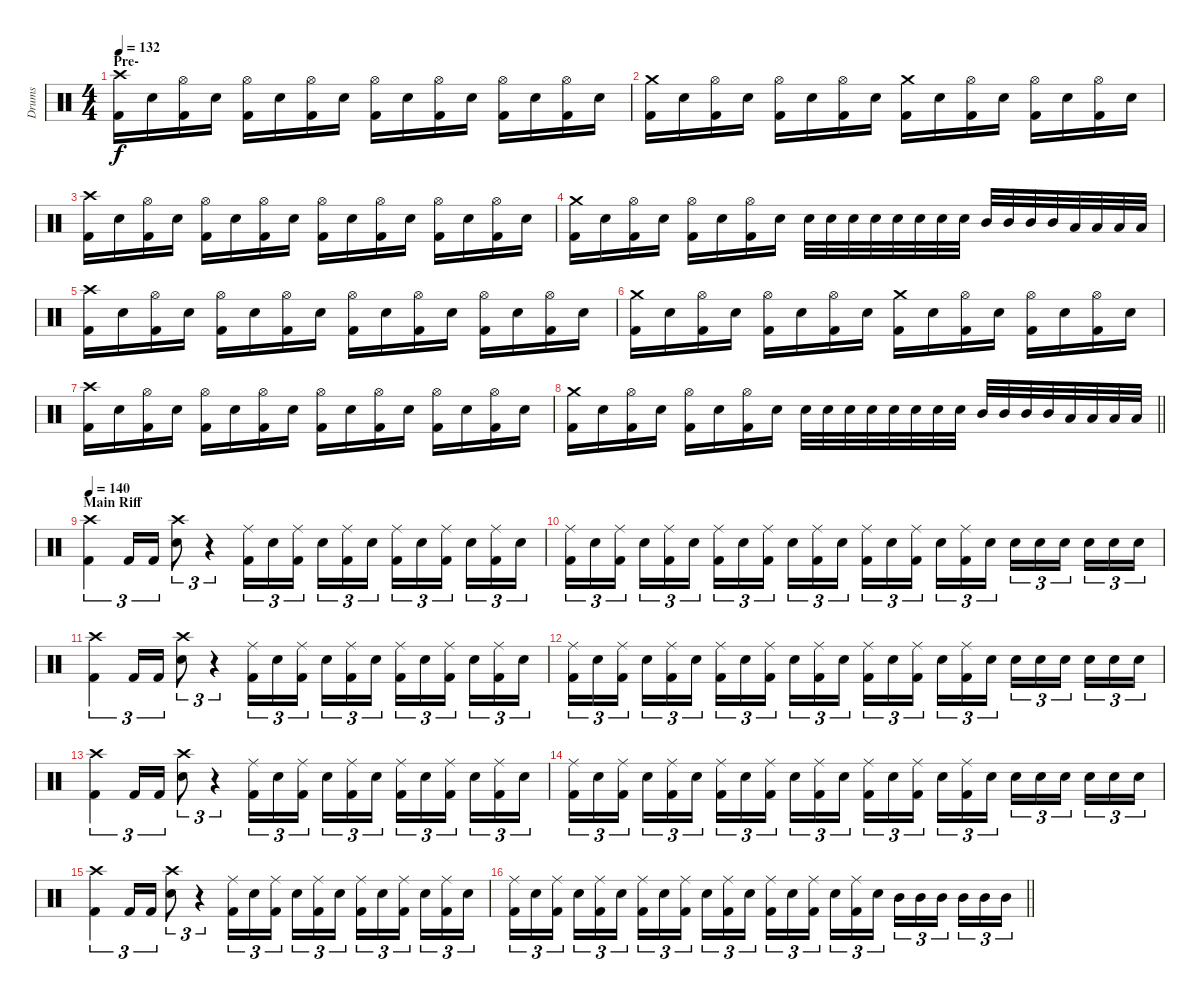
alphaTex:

\track ("Drums" "Drums") {instrument percussion}
\staff {score}
\articulation defaults
\ts (4 4)
\section ("" "Pre-")
\tempo 132
\clef neutral
\ks c
("Crash high (hit)" "Kick (hit) 2").16{dy f} "Electric Snare (hit)".16 ("Hi-Hat (open)" "Kick (hit) 2").16 "Electric Snare (hit)".16 ("Hi-Hat (open)" "Kick (hit) 2").16 "Electric Snare (hit)".16 ("Hi-Hat (open)" "Kick (hit) 2").16 "Electric Snare (hit)".16 ("Hi-Hat (open)" "Kick (hit) 2").16 "Electric Snare (hit)".16 ("Hi-Hat (open)" "Kick (hit) 2").16 "Electric Snare (hit)".16 ("Hi-Hat (open)" "Kick (hit) 2").16 "Electric Snare (hit)".16 ("Hi-Hat (open)" "Kick (hit) 2").16 "Electric Snare (hit)".16 |
("Crash medium (hit)" "Kick (hit) 2").16 "Electric Snare (hit)".16 ("Hi-Hat (open)" "Kick (hit) 2").16 "Electric Snare (hit)".16 ("Hi-Hat (open)" "Kick (hit) 2").16 "Electric Snare (hit)".16 ("Hi-Hat (open)" "Kick (hit) 2").16 "Electric Snare (hit)".16 ("Crash medium (hit)" "Kick (hit) 2").16 "Electric Snare (hit)".16 ("Hi-Hat (open)" "Kick (hit) 2").16 "Electric Snare (hit)".16 ("Hi-Hat (open)" "Kick (hit) 2").16 "Electric Snare (hit)".16 ("Hi-Hat (open)" "Kick (hit) 2").16 "Electric Snare (hit)".16 |
("Crash high (hit)" "Kick (hit) 2").16 "Electric Snare (hit)".16 ("Hi-Hat (open)" "Kick (hit) 2").16 "Electric Snare (hit)".16 ("Hi-Hat (open)" "Kick (hit) 2").16 "Electric Snare (hit)".16 ("Hi-Hat (open)" "Kick (hit) 2").16 "Electric Snare (hit)".16 ("Hi-Hat (open)" "Kick (hit) 2").16 "Electric Snare (hit)".16 ("Hi-Hat (open)" "Kick (hit) 2").16 "Electric Snare (hit)".16 ("Hi-Hat (open)" "Kick (hit) 2").16 "Electric Snare (hit)".16 ("Hi-Hat (open)" "Kick (hit) 2").16 "Electric Snare (hit)".16 |
("Crash medium (hit)" "Kick (hit) 2").16 "Electric Snare (hit)".16 ("Hi-Hat (open)" "Kick (hit) 2").16 "Electric Snare (hit)".16 ("Hi-Hat (open)" "Kick (hit) 2").16 "Electric Snare (hit)".16 ("Hi-Hat (open)" "Kick (hit) 2").16 "Electric Snare (hit)".16 "Electric Snare (hit)".32 "Electric Snare (hit)".32 "Electric Snare (hit)".32 "Electric Snare (hit)".32 "Electric Snare (hit)".32 "Electric Snare (hit)".32 "Electric Snare (hit)".32 "Electric Snare (hit)".32 "Mid Tom (hit)".32 "Mid Tom (hit)".32 "Mid Tom (hit)".32 "Mid Tom (hit)".32 "Low Tom (hit)".32 "Low Tom (hit)".32 "Low Tom (hit)".32 "Low Tom (hit)".32 |
("Crash high (hit)" "Kick (hit) 2").16 "Electric Snare (hit)".16 ("Hi-Hat (open)" "Kick (hit) 2").16 "Electric Snare (hit)".16 ("Hi-Hat (open)" "Kick (hit) 2").16 "Electric Snare (hit)".16 ("Hi-Hat (open)" "Kick (hit) 2").16 "Electric Snare (hit)".16 ("Hi-Hat (open)" "Kick (hit) 2").16 "Electric Snare (hit)".16 ("Hi-Hat (open)" "Kick (hit) 2").16 "Electric Snare (hit)".16 ("Hi-Hat (open)" "Kick (hit) 2").16 "Electric Snare (hit)".16 ("Hi-Hat (open)" "Kick (hit) 2").16 "Electric Snare (hit)".16 |
("Crash medium (hit)" "Kick (hit) 2").16 "Electric Snare (hit)".16 ("Hi-Hat (open)" "Kick (hit) 2").16 "Electric Snare (hit)".16 ("Hi-Hat (open)" "Kick (hit) 2").16 "Electric Snare (hit)".16 ("Hi-Hat (open)" "Kick (hit) 2").16 "Electric Snare (hit)".16 ("Crash medium (hit)" "Kick (hit) 2").16 "Electric Snare (hit)".16 ("Hi-Hat (open)" "Kick (hit) 2").16 "Electric Snare (hit)".16 ("Hi-Hat (open)" "Kick (hit) 2").16 "Electric Snare (hit)".16 ("Hi-Hat (open)" "Kick (hit) 2").16 "Electric Snare (hit)".16 |
("Crash high (hit)" "Kick (hit) 2").16 "Electric Snare (hit)".16 ("Hi-Hat (open)" "Kick (hit) 2").16 "Electric Snare (hit)".16 ("Hi-Hat (open)" "Kick (hit) 2").16 "Electric Snare (hit)".16 ("Hi-Hat (open)" "Kick (hit) 2").16 "Electric Snare (hit)".16 ("Hi-Hat (open)" "Kick (hit) 2").16 "Electric Snare (hit)".16 ("Hi-Hat (open)" "Kick (hit) 2").16 "Electric Snare (hit)".16 ("Hi-Hat (open)" "Kick (hit) 2").16 "Electric Snare (hit)".16 ("Hi-Hat (open)" "Kick (hit) 2").16 "Electric Snare (hit)".16 |
\barLineRight lightlight
("Crash medium (hit)" "Kick (hit) 2").16 "Electric Snare (hit)".16 ("Hi-Hat (open)" "Kick (hit) 2").16 "Electric Snare (hit)".16 ("Hi-Hat (open)" "Kick (hit) 2").16 "Electric Snare (hit)".16 ("Hi-Hat (open)" "Kick (hit) 2").16 "Electric Snare (hit)".16 "Electric Snare (hit)".32 "Electric Snare (hit)".32 "Electric Snare (hit)".32 "Electric Snare (hit)".32 "Electric Snare (hit)".32 "Electric Snare (hit)".32 "Electric Snare (hit)".32 "Electric Snare (hit)".32 "Mid Tom (hit)".32 "Mid Tom (hit)".32 "Mid Tom (hit)".32 "Mid Tom (hit)".32 "Low Tom (hit)".32 "Low Tom (hit)".32 "Low Tom (hit)".32 "Low Tom (hit)".32 |
\section ("" "Main Riff")
\tempo 140
("Crash high (hit)" "Kick (hit) 2").4{tu (3 2)} "Kick (hit) 2".16{tu (3 2)} "Kick (hit) 2".16{tu (3 2)} ("Crash high (hit)" "Electric Snare (hit)").8{tu (3 2)} r.4{tu (3 2)} ("Ride (middle)" "Kick (hit) 2").16{tu (3 2)} "Electric Snare (hit)".16{tu (3 2)} ("Ride (middle)" "Kick (hit) 2").16{tu (3 2)} "Electric Snare (hit)".16{tu (3 2)} ("Ride (middle)" "Kick (hit) 2").16{tu (3 2)} "Electric Snare (hit)".16{tu (3 2)} ("Ride (middle)" "Kick (hit) 2").16{tu (3 2)} "Electric Snare (hit)".16{tu (3 2)} ("Ride (middle)" "Kick (hit) 2").16{tu (3 2)} "Electric Snare (hit)".16{tu (3 2)} ("Ride (middle)" "Kick (hit) 2").16{tu (3 2)} "Electric Snare (hit)".16{tu (3 2)} |
("Ride (middle)" "Kick (hit) 2").16{tu (3 2)} "Electric Snare (hit)".16{tu (3 2)} ("Ride (middle)" "Kick (hit) 2").16{tu (3 2)} "Electric Snare (hit)".16{tu (3 2)} ("Ride (middle)" "Kick (hit) 2").16{tu (3 2)} "Electric Snare (hit)".16{tu (3 2)} ("Ride (middle)" "Kick (hit) 2").16{tu (3 2)} "Electric Snare (hit)".16{tu (3 2)} ("Ride (middle)" "Kick (hit) 2").16{tu (3 2)} "Electric Snare (hit)".16{tu (3 2)} ("Ride (middle)" "Kick (hit) 2").16{tu (3 2)} "Electric Snare (hit)".16{tu (3 2)} ("Ride (middle)" "Kick (hit) 2").16{tu (3 2)} "Electric Snare (hit)".16{tu (3 2)} ("Ride (middle)" "Kick (hit) 2").16{tu (3 2)} "Electric Snare (hit)".16{tu (3 2)} ("Ride (middle)" "Kick (hit) 2").16{tu (3 2)} "Electric Snare (hit)".16{tu (3 2)} "Electric Snare (hit)".16{tu (3 2)} "Electric Snare (hit)".16{tu (3 2)} "Electric Snare (hit)".16{tu (3 2)} "Electric Snare (hit)".16{tu (3 2)} "Electric Snare (hit)".16{tu (3 2)} "Electric Snare (hit)".16{tu (3 2)} |
("Crash high (hit)" "Kick (hit) 2").4{tu (3 2)} "Kick (hit) 2".16{tu (3 2)} "Kick (hit) 2".16{tu (3 2)} ("Crash high (hit)" "Electric Snare (hit)").8{tu (3 2)} r.4{tu (3 2)} ("Ride (middle)" "Kick (hit) 2").16{tu (3 2)} "Electric Snare (hit)".16{tu (3 2)} ("Ride (middle)" "Kick (hit) 2").16{tu (3 2)} "Electric Snare (hit)".16{tu (3 2)} ("Ride (middle)" "Kick (hit) 2").16{tu (3 2)} "Electric Snare (hit)".16{tu (3 2)} ("Ride (middle)" "Kick (hit) 2").16{tu (3 2)} "Electric Snare (hit)".16{tu (3 2)} ("Ride (middle)" "Kick (hit) 2").16{tu (3 2)} "Electric Snare (hit)".16{tu (3 2)} ("Ride (middle)" "Kick (hit) 2").16{tu (3 2)} "Electric Snare (hit)".16{tu (3 2)} |
("Ride (middle)" "Kick (hit) 2").16{tu (3 2)} "Electric Snare (hit)".16{tu (3 2)} ("Ride (middle)" "Kick (hit) 2").16{tu (3 2)} "Electric Snare (hit)".16{tu (3 2)} ("Ride (middle)" "Kick (hit) 2").16{tu (3 2)} "Electric Snare (hit)".16{tu (3 2)} ("Ride (middle)" "Kick (hit) 2").16{tu (3 2)} "Electric Snare (hit)".16{tu (3 2)} ("Ride (middle)" "Kick (hit) 2").16{tu (3 2)} "Electric Snare (hit)".16{tu (3 2)} ("Ride (middle)" "Kick (hit) 2").16{tu (3 2)} "Electric Snare (hit)".16{tu (3 2)} ("Ride (middle)" "Kick (hit) 2").16{tu (3 2)} "Electric Snare (hit)".16{tu (3 2)} ("Ride (middle)" "Kick (hit) 2").16{tu (3 2)} "Electric Snare (hit)".16{tu (3 2)} ("Ride (middle)" "Kick (hit) 2").16{tu (3 2)} "Electric Snare (hit)".16{tu (3 2)} "Electric Snare (hit)".16{tu (3 2)} "Electric Snare (hit)".16{tu (3 2)} "Electric Snare (hit)".16{tu (3 2)} "Electric Snare (hit)".16{tu (3 2)} "Electric Snare (hit)".16{tu (3 2)} "Electric Snare (hit)".16{tu (3 2)} |
("Crash high (hit)" "Kick (hit) 2").4{tu (3 2)} "Kick (hit) 2".16{tu (3 2)} "Kick (hit) 2".16{tu (3 2)} ("Crash high (hit)" "Electric Snare (hit)").8{tu (3 2)} r.4{tu (3 2)} ("Ride (middle)" "Kick (hit) 2").16{tu (3 2)} "Electric Snare (hit)".16{tu (3 2)} ("Ride (middle)" "Kick (hit) 2").16{tu (3 2)} "Electric Snare (hit)".16{tu (3 2)} ("Ride (middle)" "Kick (hit) 2").16{tu (3 2)} "Electric Snare (hit)".16{tu (3 2)} ("Ride (middle)" "Kick (hit) 2").16{tu (3 2)} "Electric Snare (hit)".16{tu (3 2)} ("Ride (middle)" "Kick (hit) 2").16{tu (3 2)} "Electric Snare (hit)".16{tu (3 2)} ("Ride (middle)" "Kick (hit) 2").16{tu (3 2)} "Electric Snare (hit)".16{tu (3 2)} |
("Ride (middle)" "Kick (hit) 2").16{tu (3 2)} "Electric Snare (hit)".16{tu (3 2)} ("Ride (middle)" "Kick (hit) 2").16{tu (3 2)} "Electric Snare (hit)".16{tu (3 2)} ("Ride (middle)" "Kick (hit) 2").16{tu (3 2)} "Electric Snare (hit)".16{tu (3 2)} ("Ride (middle)" "Kick (hit) 2").16{tu (3 2)} "Electric Snare (hit)".16{tu (3 2)} ("Ride (middle)" "Kick (hit) 2").16{tu (3 2)} "Electric Snare (hit)".16{tu (3 2)} ("Ride (middle)" "Kick (hit) 2").16{tu (3 2)} "Electric Snare (hit)".16{tu (3 2)} ("Ride (middle)" "Kick (hit) 2").16{tu (3 2)} "Electric Snare (hit)".16{tu (3 2)} ("Ride (middle)" "Kick (hit) 2").16{tu (3 2)} "Electric Snare (hit)".16{tu (3 2)} ("Ride (middle)" "Kick (hit) 2").16{tu (3 2)} "Electric Snare (hit)".16{tu (3 2)} "Electric Snare (hit)".16{tu (3 2)} "Electric Snare (hit)".16{tu (3 2)} "Electric Snare (hit)".16{tu (3 2)} "Electric Snare (hit)".16{tu (3 2)} "Electric Snare (hit)".16{tu (3 2)} "Electric Snare (hit)".16{tu (3 2)} |
("Crash high (hit)" "Kick (hit) 2").4{tu (3 2)} "Kick (hit) 2".16{tu (3 2)} "Kick (hit) 2".16{tu (3 2)} ("Crash high (hit)" "Electric Snare (hit)").8{tu (3 2)} r.4{tu (3 2)} ("Ride (middle)" "Kick (hit) 2").16{tu (3 2)} "Electric Snare (hit)".16{tu (3 2)} ("Ride (middle)" "Kick (hit) 2").16{tu (3 2)} "Electric Snare (hit)".16{tu (3 2)} ("Ride (middle)" "Kick (hit) 2").16{tu (3 2)} "Electric Snare (hit)".16{tu (3 2)} ("Ride (middle)" "Kick (hit) 2").16{tu (3 2)} "Electric Snare (hit)".16{tu (3 2)} ("Ride (middle)" "Kick (hit) 2").16{tu (3 2)} "Electric Snare (hit)".16{tu (3 2)} ("Ride (middle)" "Kick (hit) 2").16{tu (3 2)} "Electric Snare (hit)".16{tu (3 2)} |
\barLineRight lightlight
("Ride (middle)" "Kick (hit) 2").16{tu (3 2)} "Electric Snare (hit)".16{tu (3 2)} ("Ride (middle)" "Kick (hit) 2").16{tu (3 2)} "Electric Snare (hit)".16{tu (3 2)} ("Ride (middle)" "Kick (hit) 2").16{tu (3 2)} "Electric Snare (hit)".16{tu (3 2)} ("Ride (middle)" "Kick (hit) 2").16{tu (3 2)} "Electric Snare (hit)".16{tu (3 2)} ("Ride (middle)" "Kick (hit) 2").16{tu (3 2)} "Electric Snare (hit)".16{tu (3 2)} ("Ride (middle)" "Kick (hit) 2").16{tu (3 2)} "Electric Snare (hit)".16{tu (3 2)} ("Ride (middle)" "Kick (hit) 2").16{tu (3 2)} "Electric Snare (hit)".16{tu (3 2)} ("Ride (middle)" "Kick (hit) 2").16{tu (3 2)} "Electric Snare (hit)".16{tu (3 2)} ("Ride (middle)" "Kick (hit) 2").16{tu (3 2)} "Electric Snare (hit)".16{tu (3 2)} "Mid Tom (hit)".16{tu (3 2)} "Mid Tom (hit)".16{tu (3 2)} "Mid Tom (hit)".16{tu (3 2)} "Mid Tom (hit)".16{tu (3 2)} "Mid Tom (hit)".16{tu (3 2)} "Mid Tom (hit)".16{tu (3 2)}
